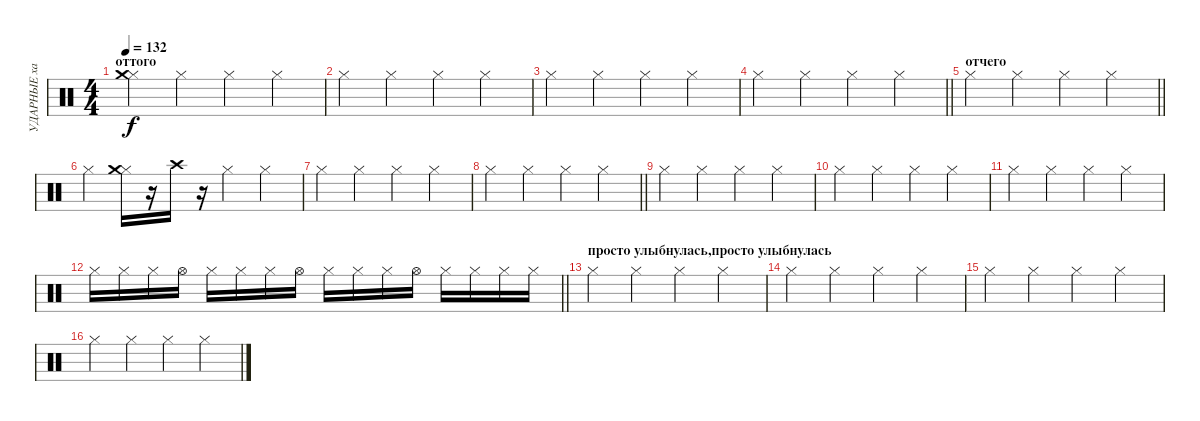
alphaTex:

\track ("УДАРНЫЕ хай хэт" "УДАРНЫЕ ха") {instrument percussion}
\staff {score}
\articulation defaults
\ts (4 4)
\section ("" "оттого")
\tempo 132
\clef neutral
\ks c
("Hi-Hat (closed)" "Crash medium (hit)").4{dy f} "Hi-Hat (closed)".4 "Hi-Hat (closed)".4 "Hi-Hat (closed)".4 |
"Hi-Hat (closed)".4 "Hi-Hat (closed)".4 "Hi-Hat (closed)".4 "Hi-Hat (closed)".4 |
"Hi-Hat (closed)".4 "Hi-Hat (closed)".4 "Hi-Hat (closed)".4 "Hi-Hat (closed)".4 |
\barLineRight lightlight "Hi-Hat (closed)".4 "Hi-Hat (closed)".4 "Hi-Hat (closed)".4 "Hi-Hat (closed)".4
|
\section ("" "отчего")
\barLineRight lightlight "Hi-Hat (closed)".4 "Hi-Hat (closed)".4 "Hi-Hat (closed)".4 "Hi-Hat (closed)".4
|
"Hi-Hat (closed)".4 ("Hi-Hat (closed)" "Crash medium (hit)").16 r.16 "Crash high (hit)".16 r.16 "Hi-Hat (closed)".4 "Hi-Hat (closed)".4 |
"Hi-Hat (closed)".4 "Hi-Hat (closed)".4 "Hi-Hat (closed)".4 "Hi-Hat (closed)".4 |
\barLineRight lightlight "Hi-Hat (closed)".4 "Hi-Hat (closed)".4 "Hi-Hat (closed)".4 "Hi-Hat (closed)".4
|
"Hi-Hat (closed)".4 "Hi-Hat (closed)".4 "Hi-Hat (closed)".4 "Hi-Hat (closed)".4 |
"Hi-Hat (closed)".4 "Hi-Hat (closed)".4 "Hi-Hat (closed)".4 "Hi-Hat (closed)".4 |
"Hi-Hat (closed)".4 "Hi-Hat (closed)".4 "Hi-Hat (closed)".4 "Hi-Hat (closed)".4 |
\barLineRight lightlight "Hi-Hat (closed)".16 "Hi-Hat (closed)".16 "Hi-Hat (closed)".16 "Hi-Hat (open)".16 "Hi-Hat (closed)".16 "Hi-Hat (closed)".16 "Hi-Hat (closed)".16 "Hi-Hat (open)".16 "Hi-Hat (closed)".16 "Hi-Hat (closed)".16 "Hi-Hat (closed)".16 "Hi-Hat (open)".16 "Hi-Hat (closed)".16 "Hi-Hat (closed)".16 "Hi-Hat (closed)".16 "Hi-Hat (closed)".16
|
\section ("" "просто улыбнулась,просто улыбнулась")
"Hi-Hat (closed)".4 "Hi-Hat (closed)".4 "Hi-Hat (closed)".4 "Hi-Hat (closed)".4 |
"Hi-Hat (closed)".4 "Hi-Hat (closed)".4 "Hi-Hat (closed)".4 "Hi-Hat (closed)".4 |
"Hi-Hat (closed)".4 "Hi-Hat (closed)".4 "Hi-Hat (closed)".4 "Hi-Hat (closed)".4 |
"Hi-Hat (closed)".4 "Hi-Hat (closed)".4 "Hi-Hat (closed)".4 "Hi-Hat (closed)".4
